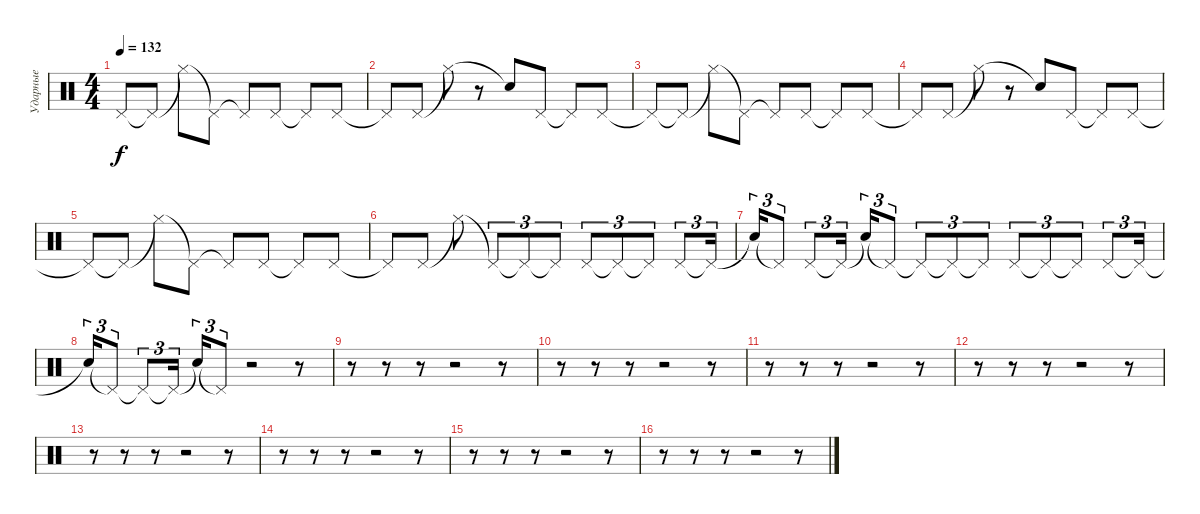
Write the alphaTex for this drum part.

\track ("Ударные" "Ударные") {instrument percussion}
\staff {score}
\articulation defaults
\ts (4 4)
\tempo 132
\clef neutral
\ks c "Pedal Hi-Hat (hit)"{t}.8{dy f} "Pedal Hi-Hat (hit)"{t}.8 "Hi-Hat (closed)"{t}.8 "Pedal Hi-Hat (hit)"{t}.8 "Pedal Hi-Hat (hit)"{t}.8 "Pedal Hi-Hat (hit)".8 "Pedal Hi-Hat (hit)"{t}.8 "Pedal Hi-Hat (hit)".8
|
"Pedal Hi-Hat (hit)"{t}.8 "Pedal Hi-Hat (hit)".8 "Hi-Hat (closed)"{t}.8 r.8 "Snare (hit)"{t}.8 "Pedal Hi-Hat (hit)".8 "Pedal Hi-Hat (hit)"{t}.8 "Pedal Hi-Hat (hit)".8 |
"Pedal Hi-Hat (hit)"{t}.8 "Pedal Hi-Hat (hit)"{t}.8 "Hi-Hat (closed)"{t}.8 "Pedal Hi-Hat (hit)"{t}.8 "Pedal Hi-Hat (hit)"{t}.8 "Pedal Hi-Hat (hit)".8 "Pedal Hi-Hat (hit)"{t}.8 "Pedal Hi-Hat (hit)".8 |
"Pedal Hi-Hat (hit)"{t}.8 "Pedal Hi-Hat (hit)".8 "Hi-Hat (closed)"{t}.8 r.8 "Snare (hit)"{t}.8 "Pedal Hi-Hat (hit)".8 "Pedal Hi-Hat (hit)"{t}.8 "Pedal Hi-Hat (hit)".8 |
"Pedal Hi-Hat (hit)"{t}.8 "Pedal Hi-Hat (hit)"{t}.8 "Hi-Hat (closed)"{t}.8 "Pedal Hi-Hat (hit)"{t}.8 "Pedal Hi-Hat (hit)"{t}.8 "Pedal Hi-Hat (hit)".8 "Pedal Hi-Hat (hit)"{t}.8 "Pedal Hi-Hat (hit)".8 |
"Pedal Hi-Hat (hit)"{t}.8 "Pedal Hi-Hat (hit)".8 "Hi-Hat (closed)"{t}.8 "Pedal Hi-Hat (hit)"{t}.8{tu (3 2)} "Pedal Hi-Hat (hit)"{t}.8{tu (3 2)} "Pedal Hi-Hat (hit)"{t}.8{tu (3 2)} "Pedal Hi-Hat (hit)".8{tu (3 2)} "Pedal Hi-Hat (hit)"{t}.8{tu (3 2)} "Pedal Hi-Hat (hit)"{t}.8{tu (3 2)} "Pedal Hi-Hat (hit)".8{tu (3 2)} "Pedal Hi-Hat (hit)"{t}.16{tu (3 2)} |
"Snare (hit)"{t}.16{tu (3 2)} "Pedal Hi-Hat (hit)"{t}.8{tu (3 2)} "Pedal Hi-Hat (hit)".8{tu (3 2)} "Pedal Hi-Hat (hit)"{t}.16{tu (3 2)} "Snare (hit)"{t}.16{tu (3 2)} "Pedal Hi-Hat (hit)"{t}.8{tu (3 2)} "Pedal Hi-Hat (hit)"{t}.8{tu (3 2)} "Pedal Hi-Hat (hit)"{t}.8{tu (3 2)} "Pedal Hi-Hat (hit)"{t}.8{tu (3 2)} "Pedal Hi-Hat (hit)".8{tu (3 2)} "Pedal Hi-Hat (hit)"{t}.8{tu (3 2)} "Pedal Hi-Hat (hit)"{t}.8{tu (3 2)} "Pedal Hi-Hat (hit)".8{tu (3 2)} "Pedal Hi-Hat (hit)"{t}.16{tu (3 2)} |
"Snare (hit)"{t}.16{tu (3 2)} "Pedal Hi-Hat (hit)"{t}.8{tu (3 2)} "Pedal Hi-Hat (hit)"{t}.8{tu (3 2)} "Pedal Hi-Hat (hit)"{t}.16{tu (3 2)} "Snare (hit)"{t}.16{tu (3 2)} "Pedal Hi-Hat (hit)"{t}.8{tu (3 2)} r.2 r.8 |
r.8 r.8 r.8 r.2 r.8 |
r.8 r.8 r.8 r.2 r.8 |
r.8 r.8 r.8 r.2 r.8 |
r.8 r.8 r.8 r.2 r.8 |
r.8 r.8 r.8 r.2 r.8 |
r.8 r.8 r.8 r.2 r.8 |
r.8 r.8 r.8 r.2 r.8 |
r.8 r.8 r.8 r.2 r.8
